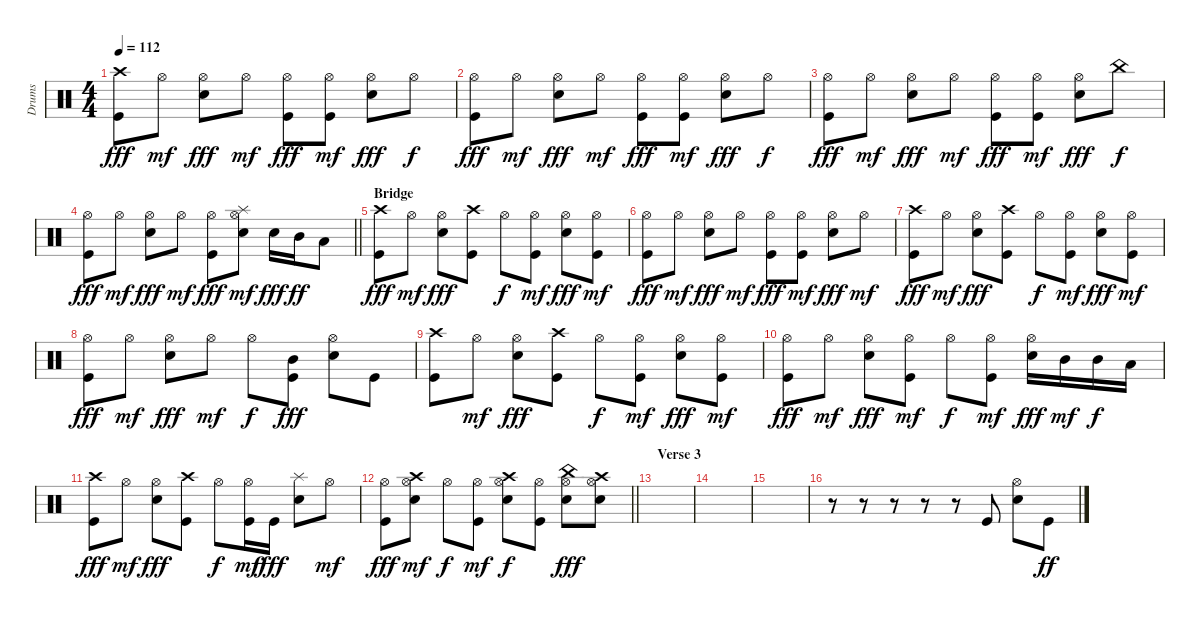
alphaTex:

\track ("Drums" "Drums") {instrument percussion}
\staff {score}
\articulation defaults
\ts (4 4)
\tempo 112
\clef neutral
\ks c
("Kick (hit)" "Crash high (hit)").8{dy fff} "Hi-Hat (open)".8{dy mf} ("Snare (hit) 2" "Hi-Hat (open)").8{dy fff} "Hi-Hat (open)".8{dy mf} ("Kick (hit)" "Hi-Hat (open)").8{dy fff} ("Kick (hit)" "Hi-Hat (open)").8{dy mf} ("Snare (hit) 2" "Hi-Hat (open)").8{dy fff} "Hi-Hat (open)".8{dy f} |
("Kick (hit)" "Hi-Hat (open)").8{dy fff} "Hi-Hat (open)".8{dy mf} ("Snare (hit) 2" "Hi-Hat (open)").8{dy fff} "Hi-Hat (open)".8{dy mf} ("Kick (hit)" "Hi-Hat (open)").8{dy fff} ("Kick (hit)" "Hi-Hat (open)").8{dy mf} ("Snare (hit) 2" "Hi-Hat (open)").8{dy fff} "Hi-Hat (open)".8{dy f} |
("Kick (hit)" "Hi-Hat (open)").8{dy fff} "Hi-Hat (open)".8{dy mf} ("Snare (hit) 2" "Hi-Hat (open)").8{dy fff} "Hi-Hat (open)".8{dy mf} ("Kick (hit)" "Hi-Hat (open)").8{dy fff} ("Kick (hit)" "Hi-Hat (open)").8{dy mf} ("Snare (hit) 2" "Hi-Hat (open)").8{dy fff} "China (hit)".8{dy f} |
\barLineRight lightlight
("Kick (hit)" "Hi-Hat (open)").8{dy fff} "Hi-Hat (open)".8{dy mf} ("Snare (hit) 2" "Hi-Hat (open)").8{dy fff} "Hi-Hat (open)".8{dy mf} ("Kick (hit)" "Hi-Hat (open)").8{dy fff} ("Snare (hit) 2" "Hi-Hat (open)" "Splash (hit)").8{dy mf} "Snare (hit) 2".16{dy fff} "Mid Tom (hit)".16{dy ff} "Low Tom (hit)".8 |
\section ("" "Bridge")
("Kick (hit)" "Crash high (hit)").8{dy fff} "Hi-Hat (open)".8{dy mf} ("Snare (hit) 2" "Hi-Hat (open)").8{dy fff} ("Kick (hit)" "Crash high (hit)").8 "Hi-Hat (open)".8{dy f} ("Kick (hit)" "Hi-Hat (open)").8{dy mf} ("Snare (hit) 2" "Hi-Hat (open)").8{dy fff} ("Kick (hit)" "Hi-Hat (open)").8{dy mf} |
("Kick (hit)" "Hi-Hat (open)").8{dy fff} "Hi-Hat (open)".8{dy mf} ("Snare (hit) 2" "Hi-Hat (open)").8{dy fff} "Hi-Hat (open)".8{dy mf} ("Kick (hit)" "Hi-Hat (open)").8{dy fff} ("Kick (hit)" "Hi-Hat (open)").8{dy mf} ("Snare (hit) 2" "Hi-Hat (open)").8{dy fff} "Hi-Hat (open)".8{dy mf} |
("Kick (hit)" "Crash high (hit)").8{dy fff} "Hi-Hat (open)".8{dy mf} ("Snare (hit) 2" "Hi-Hat (open)").8{dy fff} ("Kick (hit)" "Crash high (hit)").8 "Hi-Hat (open)".8{dy f} ("Kick (hit)" "Hi-Hat (open)").8{dy mf} ("Snare (hit) 2" "Hi-Hat (open)").8{dy fff} ("Kick (hit)" "Hi-Hat (open)").8{dy mf} |
("Kick (hit)" "Hi-Hat (open)").8{dy fff} "Hi-Hat (open)".8{dy mf} ("Snare (hit) 2" "Hi-Hat (open)").8{dy fff} "Hi-Hat (open)".8{dy mf} "Hi-Hat (open)".8{dy f} ("Kick (hit)" "Mid Tom (hit)").8{dy fff} ("Snare (hit) 2" "Hi-Hat (open)").8 "Kick (hit)".8 |
("Kick (hit)" "Crash high (hit)").8 "Hi-Hat (open)".8{dy mf} ("Snare (hit) 2" "Hi-Hat (open)").8{dy fff} ("Kick (hit)" "Crash high (hit)").8 "Hi-Hat (open)".8{dy f} ("Kick (hit)" "Hi-Hat (open)").8{dy mf} ("Snare (hit) 2" "Hi-Hat (open)").8{dy fff} ("Kick (hit)" "Hi-Hat (open)").8{dy mf} |
("Kick (hit)" "Hi-Hat (open)").8{dy fff} "Hi-Hat (open)".8{dy mf} ("Snare (hit) 2" "Hi-Hat (open)").8{dy fff} ("Kick (hit)" "Hi-Hat (open)").8{dy mf} "Hi-Hat (open)".8{dy f} ("Kick (hit)" "Hi-Hat (open)").8{dy mf} ("Snare (hit) 2" "Hi-Hat (open)").16{dy fff} "Mid Tom (hit)".16{dy mf} "Mid Tom (hit)".16{dy f} "Low Tom (hit)".16 |
("Kick (hit)" "Crash high (hit)").8{dy fff} "Hi-Hat (open)".8{dy mf} ("Snare (hit) 2" "Hi-Hat (open)").8{dy fff} ("Kick (hit)" "Crash high (hit)").8 "Hi-Hat (open)".8{dy f} ("Kick (hit)" "Hi-Hat (open)").16{dy mf} "Kick (hit)".16{dy fff} ("Snare (hit) 2" "Splash (hit)").8 "Hi-Hat (open)".8{dy mf} |
\barLineRight lightlight
("Kick (hit)" "Hi-Hat (open)").8{dy fff} ("Snare (hit) 2" "Hi-Hat (open)" "Crash high (hit)").8{dy mf} "Hi-Hat (open)".8{dy f} ("Kick (hit)" "Hi-Hat (open)").8{dy mf} ("Snare (hit) 2" "Hi-Hat (open)" "Crash high (hit)").8{dy f} ("Kick (hit)" "Hi-Hat (open)").8 ("Snare (hit) 2" "Hi-Hat (open)" "China (hit)").8{dy fff} ("Snare (hit) 2" "Hi-Hat (open)" "Crash high (hit)").8 |
\section ("" "Verse 3")
|
|
|
r.8 r.8 r.8 r.8 r.8 "Kick (hit)".8 ("Snare (hit) 2" "Hi-Hat (open)").8 "Kick (hit)".8{dy ff}
